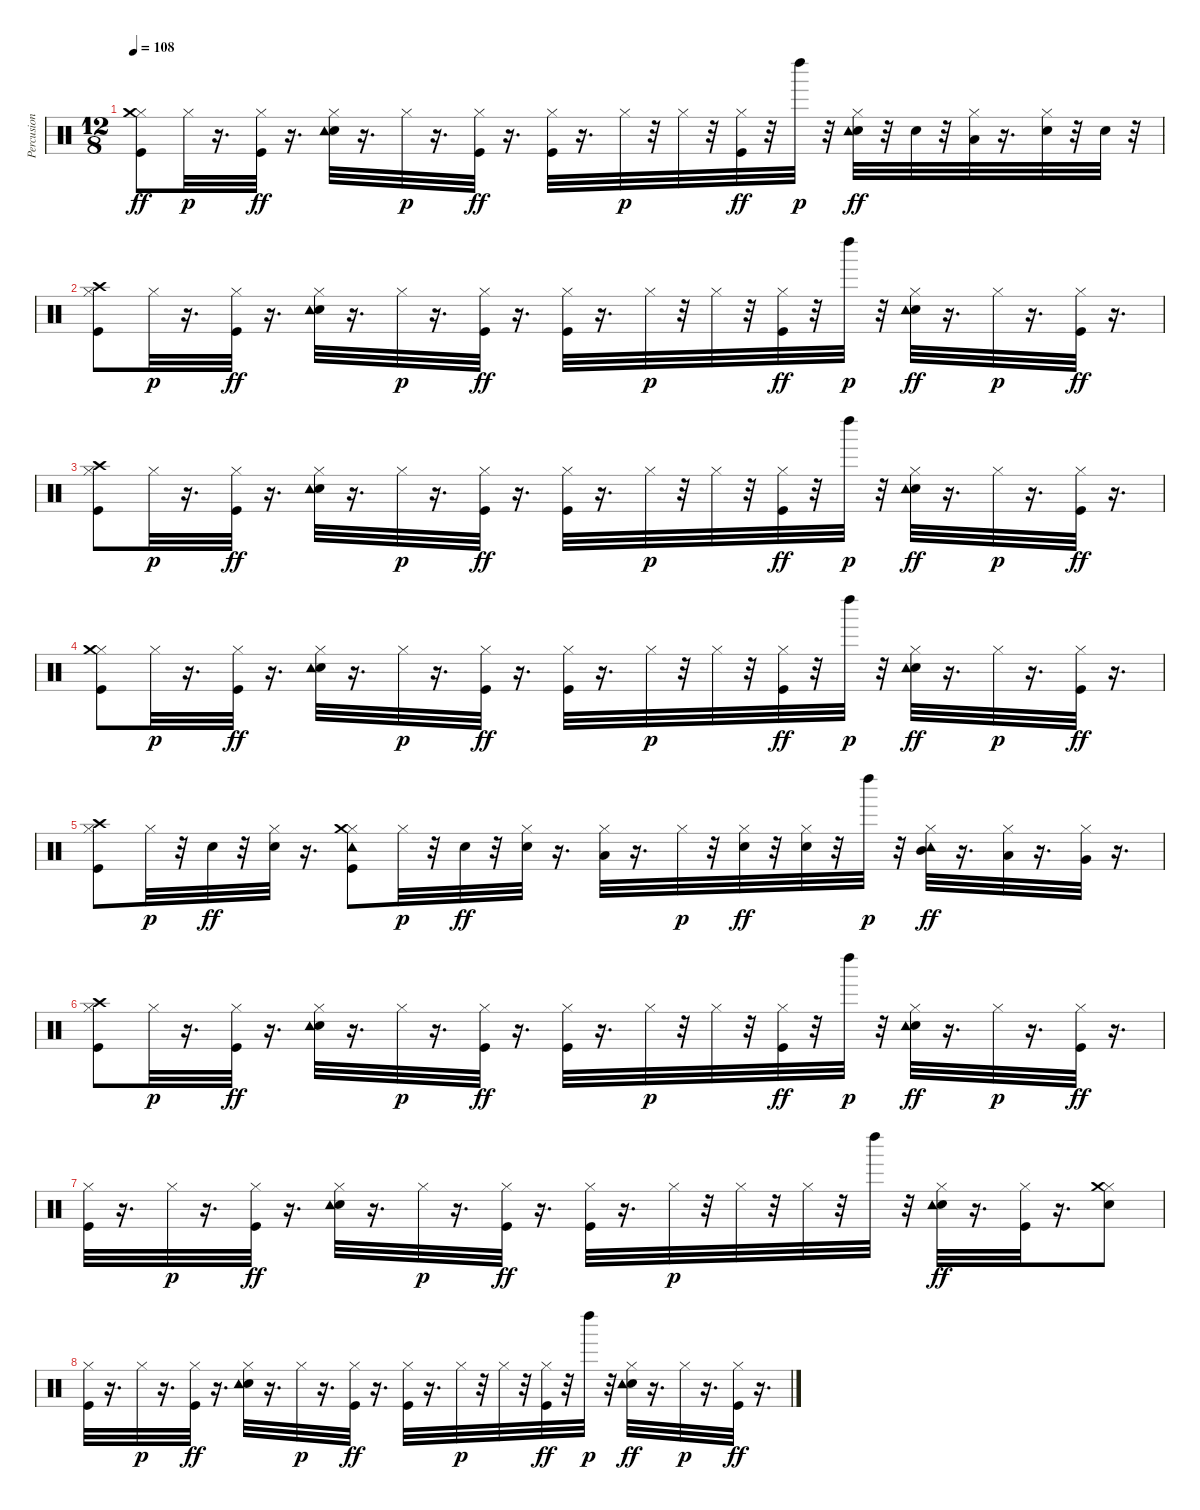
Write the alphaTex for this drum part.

\track ("Percusion (Matt)" "Percusion ") {instrument percussion}
\staff {score}
\articulation defaults
\ts (12 8)
\tempo 108
\clef neutral
\ks c
("Hi-Hat (closed)" "Kick (hit)" "Crash medium (hit)").8{dy ff} "Hi-Hat (closed)".32{dy p} r.16{d} ("Hi-Hat (closed)" "Kick (hit)").32{dy ff} r.16{d} ("Hi-Hat (closed)" "Electric Snare (hit)" "Tambourine (hit)").32 r.16{d} "Hi-Hat (closed)".32{dy p} r.16{d} ("Hi-Hat (closed)" "Kick (hit)").32{dy ff} r.16{d} ("Hi-Hat (closed)" "Kick (hit)").32 r.16{d} "Hi-Hat (closed)".32{dy p} r.32 "Hi-Hat (closed)".32 r.32 ("Hi-Hat (closed)" "Kick (hit)").32{dy ff} r.32 "Left Maraca (hit)".32{dy p} r.32 ("Hi-Hat (closed)" "Electric Snare (hit)" "Tambourine (hit)").32{dy ff} r.32 "Snare (hit) 2".32 r.32 ("Hi-Hat (closed)" "Low Tom (hit)").32 r.16{d} ("Hi-Hat (closed)" "Electric Snare (hit)").32 r.32 "Snare (hit) 2".32 r.32 |
("Hi-Hat (closed)" "Kick (hit)" "Crash high (hit)").8 "Hi-Hat (closed)".32{dy p} r.16{d} ("Hi-Hat (closed)" "Kick (hit)").32{dy ff} r.16{d} ("Hi-Hat (closed)" "Electric Snare (hit)" "Tambourine (hit)").32 r.16{d} "Hi-Hat (closed)".32{dy p} r.16{d} ("Hi-Hat (closed)" "Kick (hit)").32{dy ff} r.16{d} ("Hi-Hat (closed)" "Kick (hit)").32 r.16{d} "Hi-Hat (closed)".32{dy p} r.32 "Hi-Hat (closed)".32 r.32 ("Hi-Hat (closed)" "Kick (hit)").32{dy ff} r.32 "Left Maraca (hit)".32{dy p} r.32 ("Hi-Hat (closed)" "Electric Snare (hit)" "Tambourine (hit)").32{dy ff} r.16{d} "Hi-Hat (closed)".32{dy p} r.16{d} ("Hi-Hat (closed)" "Kick (hit)").32{dy ff} r.16{d} |
("Hi-Hat (closed)" "Kick (hit)" "Crash high (hit)").8 "Hi-Hat (closed)".32{dy p} r.16{d} ("Hi-Hat (closed)" "Kick (hit)").32{dy ff} r.16{d} ("Hi-Hat (closed)" "Electric Snare (hit)" "Tambourine (hit)").32 r.16{d} "Hi-Hat (closed)".32{dy p} r.16{d} ("Hi-Hat (closed)" "Kick (hit)").32{dy ff} r.16{d} ("Hi-Hat (closed)" "Kick (hit)").32 r.16{d} "Hi-Hat (closed)".32{dy p} r.32 "Hi-Hat (closed)".32 r.32 ("Hi-Hat (closed)" "Kick (hit)").32{dy ff} r.32 "Left Maraca (hit)".32{dy p} r.32 ("Hi-Hat (closed)" "Electric Snare (hit)" "Tambourine (hit)").32{dy ff} r.16{d} "Hi-Hat (closed)".32{dy p} r.16{d} ("Hi-Hat (closed)" "Kick (hit)").32{dy ff} r.16{d} |
("Hi-Hat (closed)" "Kick (hit)" "Crash medium (hit)").8 "Hi-Hat (closed)".32{dy p} r.16{d} ("Hi-Hat (closed)" "Kick (hit)").32{dy ff} r.16{d} ("Hi-Hat (closed)" "Electric Snare (hit)" "Tambourine (hit)").32 r.16{d} "Hi-Hat (closed)".32{dy p} r.16{d} ("Hi-Hat (closed)" "Kick (hit)").32{dy ff} r.16{d} ("Hi-Hat (closed)" "Kick (hit)").32 r.16{d} "Hi-Hat (closed)".32{dy p} r.32 "Hi-Hat (closed)".32 r.32 ("Hi-Hat (closed)" "Kick (hit)").32{dy ff} r.32 "Left Maraca (hit)".32{dy p} r.32 ("Hi-Hat (closed)" "Electric Snare (hit)" "Tambourine (hit)").32{dy ff} r.16{d} "Hi-Hat (closed)".32{dy p} r.16{d} ("Hi-Hat (closed)" "Kick (hit)").32{dy ff} r.16{d} |
("Hi-Hat (closed)" "Kick (hit)" "Crash high (hit)").8 "Hi-Hat (closed)".32{dy p} r.32 "Snare (hit) 2".32{dy ff} r.32 ("Hi-Hat (closed)" "Electric Snare (hit)").32 r.16{d} ("Hi-Hat (closed)" "Tambourine (hit)" "Kick (hit)" "Crash medium (hit)").8 "Hi-Hat (closed)".32{dy p} r.32 "Electric Snare (hit)".32{dy ff} r.32 ("Hi-Hat (closed)" "Electric Snare (hit)").32 r.16{d} ("Hi-Hat (closed)" "Low Tom (hit)").32 r.16{d} "Hi-Hat (closed)".32{dy p} r.32 ("Hi-Hat (closed)" "Electric Snare (hit)").32{dy ff} r.32 ("Hi-Hat (closed)" "Electric Snare (hit)").32 r.32 "Left Maraca (hit)".32{dy p} r.32 ("Hi-Hat (closed)" "Tambourine (hit)" "Mid Tom (hit)").32{dy ff} r.16{d} ("Hi-Hat (closed)" "Low Tom (hit)").32 r.16{d} ("Hi-Hat (closed)" "Very Low Tom (hit)").32 r.16{d} |
("Hi-Hat (closed)" "Kick (hit)" "Crash high (hit)").8 "Hi-Hat (closed)".32{dy p} r.16{d} ("Hi-Hat (closed)" "Kick (hit)").32{dy ff} r.16{d} ("Hi-Hat (closed)" "Electric Snare (hit)" "Tambourine (hit)").32 r.16{d} "Hi-Hat (closed)".32{dy p} r.16{d} ("Hi-Hat (closed)" "Kick (hit)").32{dy ff} r.16{d} ("Hi-Hat (closed)" "Kick (hit)").32 r.16{d} "Hi-Hat (closed)".32{dy p} r.32 "Hi-Hat (closed)".32 r.32 ("Hi-Hat (closed)" "Kick (hit)").32{dy ff} r.32 "Left Maraca (hit)".32{dy p} r.32 ("Hi-Hat (closed)" "Electric Snare (hit)" "Tambourine (hit)").32{dy ff} r.16{d} "Hi-Hat (closed)".32{dy p} r.16{d} ("Hi-Hat (closed)" "Kick (hit)").32{dy ff} r.16{d} |
("Hi-Hat (closed)" "Kick (hit)").32 r.16{d} "Hi-Hat (closed)".32{dy p} r.16{d} ("Hi-Hat (closed)" "Kick (hit)").32{dy ff} r.16{d} ("Hi-Hat (closed)" "Electric Snare (hit)" "Tambourine (hit)").32 r.16{d} "Hi-Hat (closed)".32{dy p} r.16{d} ("Hi-Hat (closed)" "Kick (hit)").32{dy ff} r.16{d} ("Hi-Hat (closed)" "Kick (hit)").32 r.16{d} "Hi-Hat (closed)".32{dy p} r.32 "Hi-Hat (closed)".32 r.32 "Hi-Hat (closed)".32 r.32 "Left Maraca (hit)".32 r.32 ("Hi-Hat (closed)" "Electric Snare (hit)" "Tambourine (hit)").32{dy ff} r.16{d} ("Hi-Hat (closed)" "Kick (hit)").32 r.16{d} ("Hi-Hat (closed)" "Electric Snare (hit)" "Crash medium (hit)").8 |
("Hi-Hat (closed)" "Kick (hit)").32 r.16{d} "Hi-Hat (closed)".32{dy p} r.16{d} ("Hi-Hat (closed)" "Kick (hit)").32{dy ff} r.16{d} ("Hi-Hat (closed)" "Electric Snare (hit)" "Tambourine (hit)").32 r.16{d} "Hi-Hat (closed)".32{dy p} r.16{d} ("Hi-Hat (closed)" "Kick (hit)").32{dy ff} r.16{d} ("Hi-Hat (closed)" "Kick (hit)").32 r.16{d} "Hi-Hat (closed)".32{dy p} r.32 "Hi-Hat (closed)".32 r.32 ("Hi-Hat (closed)" "Kick (hit)").32{dy ff} r.32 "Left Maraca (hit)".32{dy p} r.32 ("Hi-Hat (closed)" "Electric Snare (hit)" "Tambourine (hit)").32{dy ff} r.16{d} "Hi-Hat (closed)".32{dy p} r.16{d} ("Hi-Hat (closed)" "Kick (hit)").32{dy ff} r.16{d}
